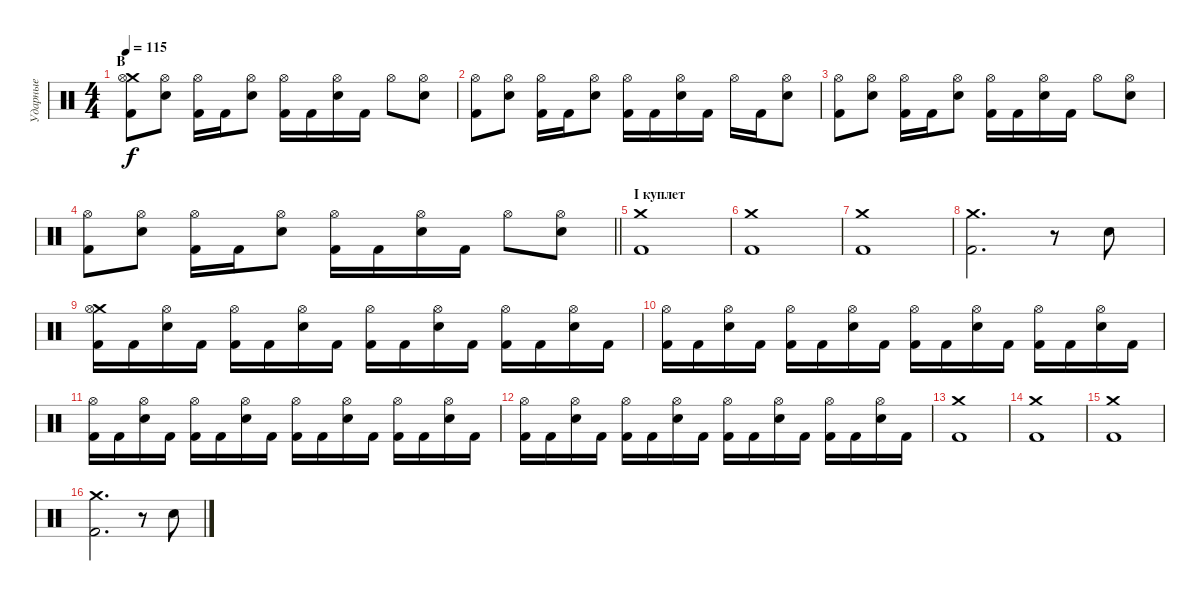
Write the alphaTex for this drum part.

\track ("Ударные" "Ударные") {instrument percussion}
\staff {score}
\articulation defaults
\ts (4 4)
\section ("" "B")
\tempo 115
\clef neutral
\ks aminor
("Crash medium (hit)" "Kick (hit) 2" "Hi-Hat (open)").8{dy f} ("Electric Snare (hit)" "Hi-Hat (open)").8 ("Kick (hit) 2" "Hi-Hat (open)").16 "Kick (hit) 2".16 ("Electric Snare (hit)" "Hi-Hat (open)").8 ("Kick (hit) 2" "Hi-Hat (open)").16 "Kick (hit) 2".16 ("Electric Snare (hit)" "Hi-Hat (open)").16 "Kick (hit) 2".16 "Hi-Hat (open)".8 ("Electric Snare (hit)" "Hi-Hat (open)").8 |
("Kick (hit) 2" "Hi-Hat (open)").8 ("Electric Snare (hit)" "Hi-Hat (open)").8 ("Kick (hit) 2" "Hi-Hat (open)").16 "Kick (hit) 2".16 ("Electric Snare (hit)" "Hi-Hat (open)").8 ("Kick (hit) 2" "Hi-Hat (open)").16 "Kick (hit) 2".16 ("Electric Snare (hit)" "Hi-Hat (open)").16 "Kick (hit) 2".16 "Hi-Hat (open)".16 "Kick (hit) 2".16 ("Electric Snare (hit)" "Hi-Hat (open)").8 |
("Kick (hit) 2" "Hi-Hat (open)").8 ("Electric Snare (hit)" "Hi-Hat (open)").8 ("Kick (hit) 2" "Hi-Hat (open)").16 "Kick (hit) 2".16 ("Electric Snare (hit)" "Hi-Hat (open)").8 ("Kick (hit) 2" "Hi-Hat (open)").16 "Kick (hit) 2".16 ("Electric Snare (hit)" "Hi-Hat (open)").16 "Kick (hit) 2".16 "Hi-Hat (open)".8 ("Electric Snare (hit)" "Hi-Hat (open)").8 |
\barLineRight lightlight
("Kick (hit) 2" "Hi-Hat (open)").8 ("Electric Snare (hit)" "Hi-Hat (open)").8 ("Kick (hit) 2" "Hi-Hat (open)").16 "Kick (hit) 2".16 ("Electric Snare (hit)" "Hi-Hat (open)").8 ("Kick (hit) 2" "Hi-Hat (open)").16 "Kick (hit) 2".16 ("Electric Snare (hit)" "Hi-Hat (open)").16 "Kick (hit) 2".16 "Hi-Hat (open)".8 ("Electric Snare (hit)" "Hi-Hat (open)").8 |
\section ("" "I куплет")
("Crash medium (hit)" "Kick (hit) 2").1 |
("Crash medium (hit)" "Kick (hit) 2").1 |
("Crash medium (hit)" "Kick (hit) 2").1 |
("Crash medium (hit)" "Kick (hit) 2").2{d} r.8 "Electric Snare (hit)".8 |
("Crash medium (hit)" "Kick (hit) 2" "Hi-Hat (open)").16 "Kick (hit) 2".16 ("Electric Snare (hit)" "Hi-Hat (open)").16 "Kick (hit) 2".16 ("Kick (hit) 2" "Hi-Hat (open)").16 "Kick (hit) 2".16 ("Electric Snare (hit)" "Hi-Hat (open)").16 "Kick (hit) 2".16 ("Kick (hit) 2" "Hi-Hat (open)").16 "Kick (hit) 2".16 ("Electric Snare (hit)" "Hi-Hat (open)").16 "Kick (hit) 2".16 ("Kick (hit) 2" "Hi-Hat (open)").16 "Kick (hit) 2".16 ("Electric Snare (hit)" "Hi-Hat (open)").16 "Kick (hit) 2".16 |
("Kick (hit) 2" "Hi-Hat (open)").16 "Kick (hit) 2".16 ("Electric Snare (hit)" "Hi-Hat (open)").16 "Kick (hit) 2".16 ("Kick (hit) 2" "Hi-Hat (open)").16 "Kick (hit) 2".16 ("Electric Snare (hit)" "Hi-Hat (open)").16 "Kick (hit) 2".16 ("Kick (hit) 2" "Hi-Hat (open)").16 "Kick (hit) 2".16 ("Electric Snare (hit)" "Hi-Hat (open)").16 "Kick (hit) 2".16 ("Kick (hit) 2" "Hi-Hat (open)").16 "Kick (hit) 2".16 ("Electric Snare (hit)" "Hi-Hat (open)").16 "Kick (hit) 2".16 |
("Kick (hit) 2" "Hi-Hat (open)").16 "Kick (hit) 2".16 ("Electric Snare (hit)" "Hi-Hat (open)").16 "Kick (hit) 2".16 ("Kick (hit) 2" "Hi-Hat (open)").16 "Kick (hit) 2".16 ("Electric Snare (hit)" "Hi-Hat (open)").16 "Kick (hit) 2".16 ("Kick (hit) 2" "Hi-Hat (open)").16 "Kick (hit) 2".16 ("Electric Snare (hit)" "Hi-Hat (open)").16 "Kick (hit) 2".16 ("Kick (hit) 2" "Hi-Hat (open)").16 "Kick (hit) 2".16 ("Electric Snare (hit)" "Hi-Hat (open)").16 "Kick (hit) 2".16 |
("Kick (hit) 2" "Hi-Hat (open)").16 "Kick (hit) 2".16 ("Electric Snare (hit)" "Hi-Hat (open)").16 "Kick (hit) 2".16 ("Kick (hit) 2" "Hi-Hat (open)").16 "Kick (hit) 2".16 ("Electric Snare (hit)" "Hi-Hat (open)").16 "Kick (hit) 2".16 ("Kick (hit) 2" "Hi-Hat (open)").16 "Kick (hit) 2".16 ("Electric Snare (hit)" "Hi-Hat (open)").16 "Kick (hit) 2".16 ("Kick (hit) 2" "Hi-Hat (open)").16 "Kick (hit) 2".16 ("Electric Snare (hit)" "Hi-Hat (open)").16 "Kick (hit) 2".16 |
("Crash medium (hit)" "Kick (hit) 2").1 |
("Crash medium (hit)" "Kick (hit) 2").1 |
("Crash medium (hit)" "Kick (hit) 2").1 |
("Crash medium (hit)" "Kick (hit) 2").2{d} r.8 "Electric Snare (hit)".8
